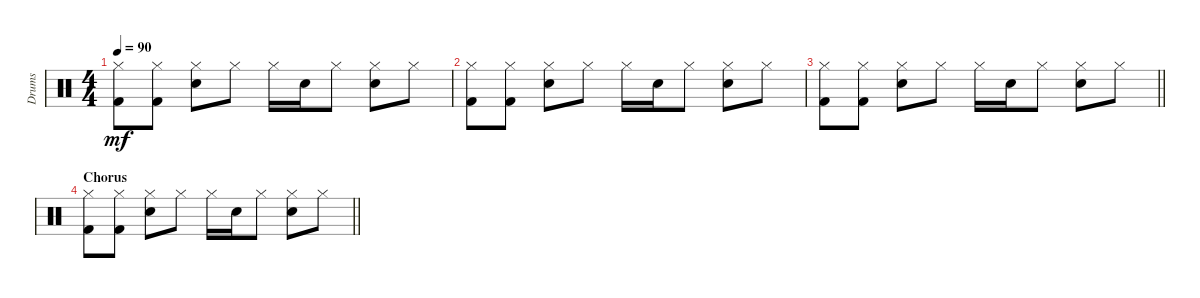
\track ("Drums" "Drums") {instrument percussion}
\staff {score}
\articulation defaults
\ts (4 4)
\tempo 90
\clef neutral
\ks c
("Hi-Hat (closed)" "Kick (hit) 2").8{dy mf} ("Hi-Hat (closed)" "Kick (hit) 2").8 ("Hi-Hat (closed)" "Snare (hit) 2").8 "Hi-Hat (closed)".8 "Hi-Hat (closed)".16 "Snare (hit) 2".16 "Hi-Hat (closed)".8 ("Hi-Hat (closed)" "Snare (hit) 2").8 "Hi-Hat (closed)".8 |
("Hi-Hat (closed)" "Kick (hit) 2").8 ("Hi-Hat (closed)" "Kick (hit) 2").8 ("Hi-Hat (closed)" "Snare (hit) 2").8 "Hi-Hat (closed)".8 "Hi-Hat (closed)".16 "Snare (hit) 2".16 "Hi-Hat (closed)".8 ("Hi-Hat (closed)" "Snare (hit) 2").8 "Hi-Hat (closed)".8 |
\barLineRight lightlight
("Hi-Hat (closed)" "Kick (hit) 2").8 ("Hi-Hat (closed)" "Kick (hit) 2").8 ("Hi-Hat (closed)" "Snare (hit) 2").8 "Hi-Hat (closed)".8 "Hi-Hat (closed)".16 "Snare (hit) 2".16 "Hi-Hat (closed)".8 ("Hi-Hat (closed)" "Snare (hit) 2").8 "Hi-Hat (closed)".8 |
\section ("" "Chorus")
\barLineRight lightlight
("Hi-Hat (closed)" "Kick (hit) 2").8 ("Hi-Hat (closed)" "Kick (hit) 2").8 ("Hi-Hat (closed)" "Snare (hit) 2").8 "Hi-Hat (closed)".8 "Hi-Hat (closed)".16 "Snare (hit) 2".16 "Hi-Hat (closed)".8 ("Hi-Hat (closed)" "Snare (hit) 2").8 "Hi-Hat (closed)".8
